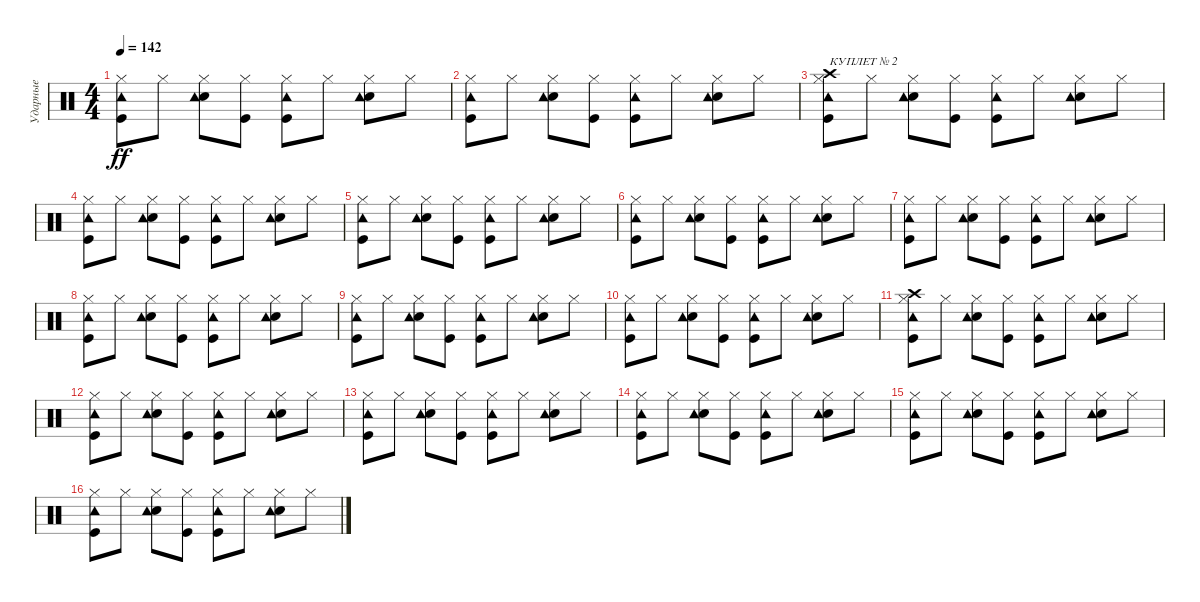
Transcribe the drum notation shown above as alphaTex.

\track ("Ударные" "Ударные") {instrument percussion}
\staff {score}
\articulation defaults
\ts (4 4)
\tempo 142
\clef neutral
\ks c
("Hi-Hat (closed)" "Kick (hit)" "Tambourine (hit)").8{dy ff} "Hi-Hat (closed)".8 ("Hi-Hat (closed)" "Electric Snare (hit)" "Tambourine (hit)").8 ("Hi-Hat (closed)" "Kick (hit)").8 ("Hi-Hat (closed)" "Tambourine (hit)" "Kick (hit)").8 "Hi-Hat (closed)".8 ("Hi-Hat (closed)" "Electric Snare (hit)" "Tambourine (hit)").8 "Hi-Hat (closed)".8 |
("Hi-Hat (closed)" "Kick (hit)" "Tambourine (hit)").8 "Hi-Hat (closed)".8 ("Hi-Hat (closed)" "Electric Snare (hit)" "Tambourine (hit)").8 ("Hi-Hat (closed)" "Kick (hit)").8 ("Hi-Hat (closed)" "Tambourine (hit)" "Kick (hit)").8 "Hi-Hat (closed)".8 ("Hi-Hat (closed)" "Electric Snare (hit)" "Tambourine (hit)").8 "Hi-Hat (closed)".8 |
("Crash high (hit)" "Hi-Hat (closed)" "Kick (hit)" "Tambourine (hit)").8{txt "КУПЛЕТ № 2"} "Hi-Hat (closed)".8 ("Hi-Hat (closed)" "Electric Snare (hit)" "Tambourine (hit)").8 ("Hi-Hat (closed)" "Kick (hit)").8 ("Hi-Hat (closed)" "Tambourine (hit)" "Kick (hit)").8 "Hi-Hat (closed)".8 ("Hi-Hat (closed)" "Electric Snare (hit)" "Tambourine (hit)").8 "Hi-Hat (closed)".8 |
("Hi-Hat (closed)" "Kick (hit)" "Tambourine (hit)").8 "Hi-Hat (closed)".8 ("Hi-Hat (closed)" "Electric Snare (hit)" "Tambourine (hit)").8 ("Hi-Hat (closed)" "Kick (hit)").8 ("Hi-Hat (closed)" "Tambourine (hit)" "Kick (hit)").8 "Hi-Hat (closed)".8 ("Hi-Hat (closed)" "Electric Snare (hit)" "Tambourine (hit)").8 "Hi-Hat (closed)".8 |
("Hi-Hat (closed)" "Kick (hit)" "Tambourine (hit)").8 "Hi-Hat (closed)".8 ("Hi-Hat (closed)" "Electric Snare (hit)" "Tambourine (hit)").8 ("Hi-Hat (closed)" "Kick (hit)").8 ("Hi-Hat (closed)" "Tambourine (hit)" "Kick (hit)").8 "Hi-Hat (closed)".8 ("Hi-Hat (closed)" "Electric Snare (hit)" "Tambourine (hit)").8 "Hi-Hat (closed)".8 |
("Hi-Hat (closed)" "Kick (hit)" "Tambourine (hit)").8 "Hi-Hat (closed)".8 ("Hi-Hat (closed)" "Electric Snare (hit)" "Tambourine (hit)").8 ("Hi-Hat (closed)" "Kick (hit)").8 ("Hi-Hat (closed)" "Tambourine (hit)" "Kick (hit)").8 "Hi-Hat (closed)".8 ("Hi-Hat (closed)" "Electric Snare (hit)" "Tambourine (hit)").8 "Hi-Hat (closed)".8 |
("Hi-Hat (closed)" "Kick (hit)" "Tambourine (hit)").8 "Hi-Hat (closed)".8 ("Hi-Hat (closed)" "Electric Snare (hit)" "Tambourine (hit)").8 ("Hi-Hat (closed)" "Kick (hit)").8 ("Hi-Hat (closed)" "Tambourine (hit)" "Kick (hit)").8 "Hi-Hat (closed)".8 ("Hi-Hat (closed)" "Electric Snare (hit)" "Tambourine (hit)").8 "Hi-Hat (closed)".8 |
("Hi-Hat (closed)" "Kick (hit)" "Tambourine (hit)").8 "Hi-Hat (closed)".8 ("Hi-Hat (closed)" "Electric Snare (hit)" "Tambourine (hit)").8 ("Hi-Hat (closed)" "Kick (hit)").8 ("Hi-Hat (closed)" "Tambourine (hit)" "Kick (hit)").8 "Hi-Hat (closed)".8 ("Hi-Hat (closed)" "Electric Snare (hit)" "Tambourine (hit)").8 "Hi-Hat (closed)".8 |
("Hi-Hat (closed)" "Kick (hit)" "Tambourine (hit)").8 "Hi-Hat (closed)".8 ("Hi-Hat (closed)" "Electric Snare (hit)" "Tambourine (hit)").8 ("Hi-Hat (closed)" "Kick (hit)").8 ("Hi-Hat (closed)" "Tambourine (hit)" "Kick (hit)").8 "Hi-Hat (closed)".8 ("Hi-Hat (closed)" "Electric Snare (hit)" "Tambourine (hit)").8 "Hi-Hat (closed)".8 |
("Hi-Hat (closed)" "Kick (hit)" "Tambourine (hit)").8 "Hi-Hat (closed)".8 ("Hi-Hat (closed)" "Electric Snare (hit)" "Tambourine (hit)").8 ("Hi-Hat (closed)" "Kick (hit)").8 ("Hi-Hat (closed)" "Tambourine (hit)" "Kick (hit)").8 "Hi-Hat (closed)".8 ("Hi-Hat (closed)" "Electric Snare (hit)" "Tambourine (hit)").8 "Hi-Hat (closed)".8 |
("Crash high (hit)" "Hi-Hat (closed)" "Kick (hit)" "Tambourine (hit)").8 "Hi-Hat (closed)".8 ("Hi-Hat (closed)" "Electric Snare (hit)" "Tambourine (hit)").8 ("Hi-Hat (closed)" "Kick (hit)").8 ("Hi-Hat (closed)" "Tambourine (hit)" "Kick (hit)").8 "Hi-Hat (closed)".8 ("Hi-Hat (closed)" "Electric Snare (hit)" "Tambourine (hit)").8 "Hi-Hat (closed)".8 |
("Hi-Hat (closed)" "Kick (hit)" "Tambourine (hit)").8 "Hi-Hat (closed)".8 ("Hi-Hat (closed)" "Electric Snare (hit)" "Tambourine (hit)").8 ("Hi-Hat (closed)" "Kick (hit)").8 ("Hi-Hat (closed)" "Tambourine (hit)" "Kick (hit)").8 "Hi-Hat (closed)".8 ("Hi-Hat (closed)" "Electric Snare (hit)" "Tambourine (hit)").8 "Hi-Hat (closed)".8 |
("Hi-Hat (closed)" "Kick (hit)" "Tambourine (hit)").8 "Hi-Hat (closed)".8 ("Hi-Hat (closed)" "Electric Snare (hit)" "Tambourine (hit)").8 ("Hi-Hat (closed)" "Kick (hit)").8 ("Hi-Hat (closed)" "Tambourine (hit)" "Kick (hit)").8 "Hi-Hat (closed)".8 ("Hi-Hat (closed)" "Electric Snare (hit)" "Tambourine (hit)").8 "Hi-Hat (closed)".8 |
("Hi-Hat (closed)" "Kick (hit)" "Tambourine (hit)").8 "Hi-Hat (closed)".8 ("Hi-Hat (closed)" "Electric Snare (hit)" "Tambourine (hit)").8 ("Hi-Hat (closed)" "Kick (hit)").8 ("Hi-Hat (closed)" "Tambourine (hit)" "Kick (hit)").8 "Hi-Hat (closed)".8 ("Hi-Hat (closed)" "Electric Snare (hit)" "Tambourine (hit)").8 "Hi-Hat (closed)".8 |
("Hi-Hat (closed)" "Kick (hit)" "Tambourine (hit)").8 "Hi-Hat (closed)".8 ("Hi-Hat (closed)" "Electric Snare (hit)" "Tambourine (hit)").8 ("Hi-Hat (closed)" "Kick (hit)").8 ("Hi-Hat (closed)" "Tambourine (hit)" "Kick (hit)").8 "Hi-Hat (closed)".8 ("Hi-Hat (closed)" "Electric Snare (hit)" "Tambourine (hit)").8 "Hi-Hat (closed)".8 |
("Hi-Hat (closed)" "Kick (hit)" "Tambourine (hit)").8 "Hi-Hat (closed)".8 ("Hi-Hat (closed)" "Electric Snare (hit)" "Tambourine (hit)").8 ("Hi-Hat (closed)" "Kick (hit)").8 ("Hi-Hat (closed)" "Tambourine (hit)" "Kick (hit)").8 "Hi-Hat (closed)".8 ("Hi-Hat (closed)" "Electric Snare (hit)" "Tambourine (hit)").8 "Hi-Hat (closed)".8
